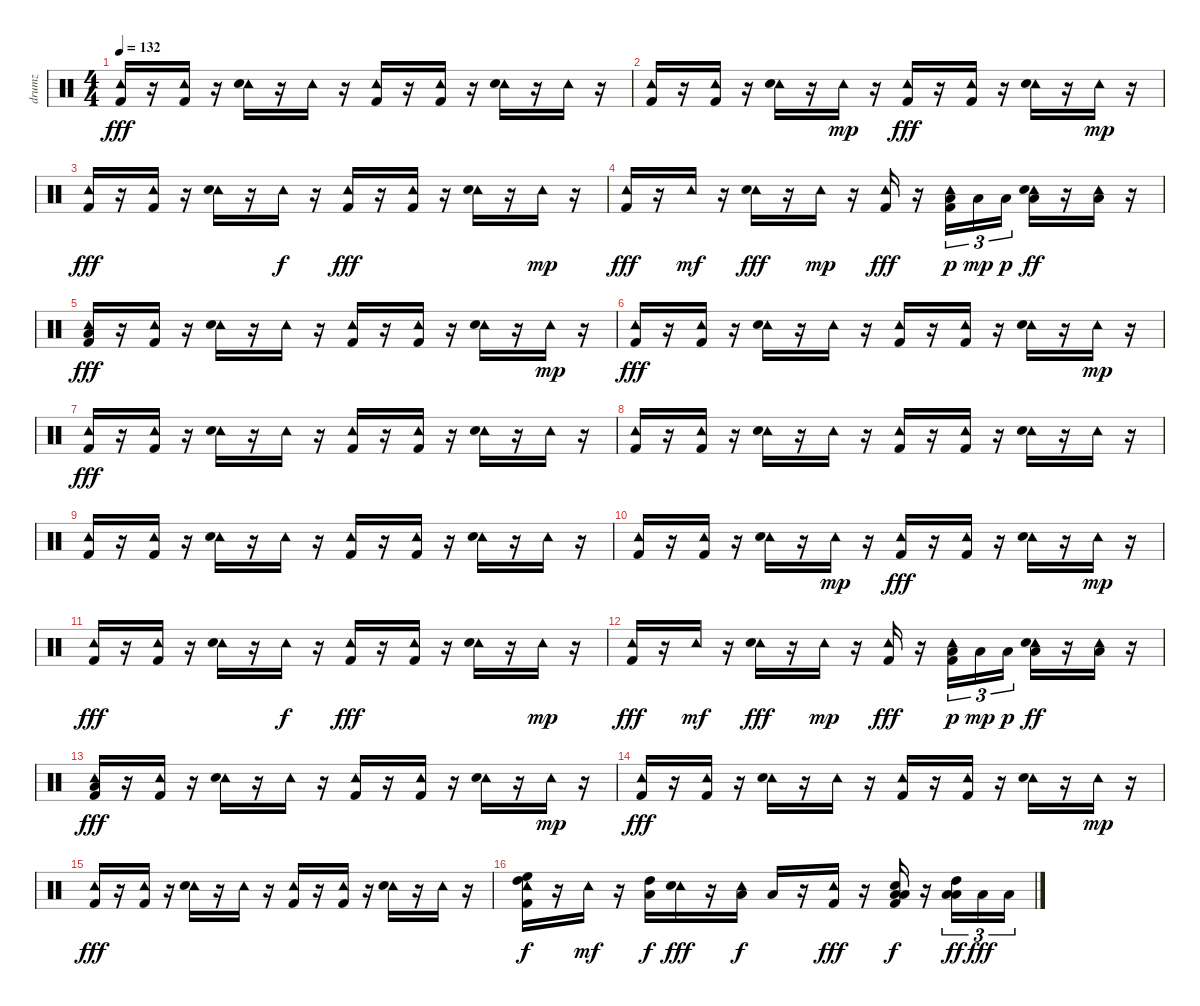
\track ("drumz" "drumz") {instrument percussion}
\staff {score}
\articulation defaults
\ts (4 4)
\tempo 132
\clef neutral
\ks c
("Tambourine (hit)" "Kick (hit) 2").16{dy fff} r.16 ("Tambourine (hit)" "Kick (hit) 2").16 r.16 ("Tambourine (hit)" "Snare (hit) 2").16 r.16 "Tambourine (hit)".16 r.16 ("Tambourine (hit)" "Kick (hit) 2").16 r.16 ("Tambourine (hit)" "Kick (hit) 2").16 r.16 ("Tambourine (hit)" "Snare (hit) 2").16 r.16 "Tambourine (hit)".16 r.16 |
("Tambourine (hit)" "Kick (hit) 2").16 r.16 ("Tambourine (hit)" "Kick (hit) 2").16 r.16 ("Tambourine (hit)" "Snare (hit) 2").16 r.16 "Tambourine (hit)".16{dy mp} r.16 ("Tambourine (hit)" "Kick (hit) 2").16{dy fff} r.16 ("Tambourine (hit)" "Kick (hit) 2").16 r.16 ("Tambourine (hit)" "Snare (hit) 2").16 r.16 "Tambourine (hit)".16{dy mp} r.16 |
("Tambourine (hit)" "Kick (hit) 2").16{dy fff} r.16 ("Tambourine (hit)" "Kick (hit) 2").16 r.16 ("Tambourine (hit)" "Snare (hit) 2").16 r.16 "Tambourine (hit)".16{dy f} r.16 ("Tambourine (hit)" "Kick (hit) 2").16{dy fff} r.16 ("Tambourine (hit)" "Kick (hit) 2").16 r.16 ("Tambourine (hit)" "Snare (hit) 2").16 r.16 "Tambourine (hit)".16{dy mp} r.16 |
("Tambourine (hit)" "Kick (hit) 2").16{dy fff} r.16 "Tambourine (hit)".16{dy mf} r.16 ("Tambourine (hit)" "Snare (hit) 2").16{dy fff} r.16 "Tambourine (hit)".16{dy mp} r.16 ("Tambourine (hit)" "Kick (hit) 2").16{dy fff} r.16 ("Tambourine (hit)" "Kick (hit) 2" "Low Tom (hit)").16{tu (3 2) dy p} "Low Tom (hit)".16{tu (3 2) dy mp} "Low Tom (hit)".16{tu (3 2) dy p} ("Tambourine (hit)" "Snare (hit) 2" "Low Tom (hit)").16{dy ff} r.16 ("Tambourine (hit)" "Low Floor Tom (hit)").16 r.16 |
("Tambourine (hit)" "Kick (hit) 2" "Low Floor Tom (hit)").16{dy fff} r.16 ("Tambourine (hit)" "Kick (hit) 2").16 r.16 ("Tambourine (hit)" "Snare (hit) 2").16 r.16 "Tambourine (hit)".16 r.16 ("Tambourine (hit)" "Kick (hit) 2").16 r.16 ("Tambourine (hit)" "Kick (hit) 2").16 r.16 ("Tambourine (hit)" "Snare (hit) 2").16 r.16 "Tambourine (hit)".16{dy mp} r.16 |
("Tambourine (hit)" "Kick (hit) 2").16{dy fff} r.16 ("Tambourine (hit)" "Kick (hit) 2").16 r.16 ("Tambourine (hit)" "Snare (hit) 2").16 r.16 "Tambourine (hit)".16 r.16 ("Tambourine (hit)" "Kick (hit) 2").16 r.16 ("Tambourine (hit)" "Kick (hit) 2").16 r.16 ("Tambourine (hit)" "Snare (hit) 2").16 r.16 "Tambourine (hit)".16{dy mp} r.16 |
("Tambourine (hit)" "Kick (hit) 2").16{dy fff} r.16 ("Tambourine (hit)" "Kick (hit) 2").16 r.16 ("Tambourine (hit)" "Snare (hit) 2").16 r.16 "Tambourine (hit)".16 r.16 ("Tambourine (hit)" "Kick (hit) 2").16 r.16 ("Tambourine (hit)" "Kick (hit) 2").16 r.16 ("Tambourine (hit)" "Snare (hit) 2").16 r.16 "Tambourine (hit)".16 r.16 |
("Tambourine (hit)" "Kick (hit) 2").16 r.16 ("Tambourine (hit)" "Kick (hit) 2").16 r.16 ("Tambourine (hit)" "Snare (hit) 2").16 r.16 "Tambourine (hit)".16 r.16 ("Tambourine (hit)" "Kick (hit) 2").16 r.16 ("Tambourine (hit)" "Kick (hit) 2").16 r.16 ("Tambourine (hit)" "Snare (hit) 2").16 r.16 "Tambourine (hit)".16 r.16 |
("Tambourine (hit)" "Kick (hit) 2").16 r.16 ("Tambourine (hit)" "Kick (hit) 2").16 r.16 ("Tambourine (hit)" "Snare (hit) 2").16 r.16 "Tambourine (hit)".16 r.16 ("Tambourine (hit)" "Kick (hit) 2").16 r.16 ("Tambourine (hit)" "Kick (hit) 2").16 r.16 ("Tambourine (hit)" "Snare (hit) 2").16 r.16 "Tambourine (hit)".16 r.16 |
("Tambourine (hit)" "Kick (hit) 2").16 r.16 ("Tambourine (hit)" "Kick (hit) 2").16 r.16 ("Tambourine (hit)" "Snare (hit) 2").16 r.16 "Tambourine (hit)".16{dy mp} r.16 ("Tambourine (hit)" "Kick (hit) 2").16{dy fff} r.16 ("Tambourine (hit)" "Kick (hit) 2").16 r.16 ("Tambourine (hit)" "Snare (hit) 2").16 r.16 "Tambourine (hit)".16{dy mp} r.16 |
("Tambourine (hit)" "Kick (hit) 2").16{dy fff} r.16 ("Tambourine (hit)" "Kick (hit) 2").16 r.16 ("Tambourine (hit)" "Snare (hit) 2").16 r.16 "Tambourine (hit)".16{dy f} r.16 ("Tambourine (hit)" "Kick (hit) 2").16{dy fff} r.16 ("Tambourine (hit)" "Kick (hit) 2").16 r.16 ("Tambourine (hit)" "Snare (hit) 2").16 r.16 "Tambourine (hit)".16{dy mp} r.16 |
("Tambourine (hit)" "Kick (hit) 2").16{dy fff} r.16 "Tambourine (hit)".16{dy mf} r.16 ("Tambourine (hit)" "Snare (hit) 2").16{dy fff} r.16 "Tambourine (hit)".16{dy mp} r.16 ("Tambourine (hit)" "Kick (hit) 2").16{dy fff} r.16 ("Tambourine (hit)" "Kick (hit) 2" "Low Tom (hit)").16{tu (3 2) dy p} "Low Tom (hit)".16{tu (3 2) dy mp} "Low Tom (hit)".16{tu (3 2) dy p} ("Tambourine (hit)" "Snare (hit) 2" "Low Tom (hit)").16{dy ff} r.16 ("Tambourine (hit)" "Low Floor Tom (hit)").16 r.16 |
("Tambourine (hit)" "Kick (hit) 2" "Low Floor Tom (hit)").16{dy fff} r.16 ("Tambourine (hit)" "Kick (hit) 2").16 r.16 ("Tambourine (hit)" "Snare (hit) 2").16 r.16 "Tambourine (hit)".16 r.16 ("Tambourine (hit)" "Kick (hit) 2").16 r.16 ("Tambourine (hit)" "Kick (hit) 2").16 r.16 ("Tambourine (hit)" "Snare (hit) 2").16 r.16 "Tambourine (hit)".16{dy mp} r.16 |
("Tambourine (hit)" "Kick (hit) 2").16{dy fff} r.16 ("Tambourine (hit)" "Kick (hit) 2").16 r.16 ("Tambourine (hit)" "Snare (hit) 2").16 r.16 "Tambourine (hit)".16 r.16 ("Tambourine (hit)" "Kick (hit) 2").16 r.16 ("Tambourine (hit)" "Kick (hit) 2").16 r.16 ("Tambourine (hit)" "Snare (hit) 2").16 r.16 "Tambourine (hit)".16{dy mp} r.16 |
("Tambourine (hit)" "Kick (hit) 2").16{dy fff} r.16 ("Tambourine (hit)" "Kick (hit) 2").16 r.16 ("Tambourine (hit)" "Snare (hit) 2").16 r.16 "Tambourine (hit)".16 r.16 ("Tambourine (hit)" "Kick (hit) 2").16 r.16 ("Tambourine (hit)" "Kick (hit) 2").16 r.16 ("Tambourine (hit)" "Snare (hit) 2").16 r.16 "Tambourine (hit)".16 r.16 |
("Tambourine (hit)" "Kick (hit) 2" "High Tom (hit)" "High Floor Tom (hit)").16{dy f} r.16 "Tambourine (hit)".16{dy mf} r.16 ("High Tom (hit)" "Low Tom (hit)").16{dy f} ("Tambourine (hit)" "Snare (hit) 2").16{dy fff} r.16 ("Tambourine (hit)" "Low Floor Tom (hit)").16{dy f} "Low Tom (hit)".16 r.16 ("Tambourine (hit)" "Kick (hit) 2").16{dy fff} r.16 ("Snare (hit) 2" "Kick (hit) 2" "Low Tom (hit)" "Low Floor Tom (hit)").16{dy f} r.16 ("High Tom (hit)" "Low Tom (hit)" "Low Floor Tom (hit)").16{tu (3 2) dy ff} "Low Tom (hit)".16{tu (3 2) dy fff} "Low Floor Tom (hit)".16{tu (3 2)}
